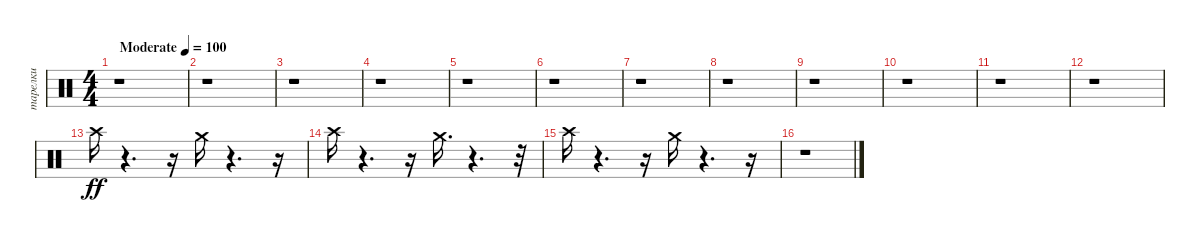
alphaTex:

\track ("тарелки" "тарелки") {instrument percussion}
\staff {score}
\articulation defaults
\ts (4 4)
\tempo (100 "Moderate")
\clef neutral
\ks c
r.1{dy ff} |
r.1 |
r.1 |
r.1 |
r.1 |
r.1 |
r.1 |
r.1 |
r.1 |
r.1 |
r.1 |
r.1 |
"Crash high (hit)".16 r.4{d} r.16 "Crash medium (hit)".16 r.4{d} r.16 |
"Crash high (hit)".16 r.4{d} r.16 "Crash medium (hit)".16{d} r.4{d} r.32 |
"Crash high (hit)".16 r.4{d} r.16 "Crash medium (hit)".16 r.4{d} r.16 |
r.1
